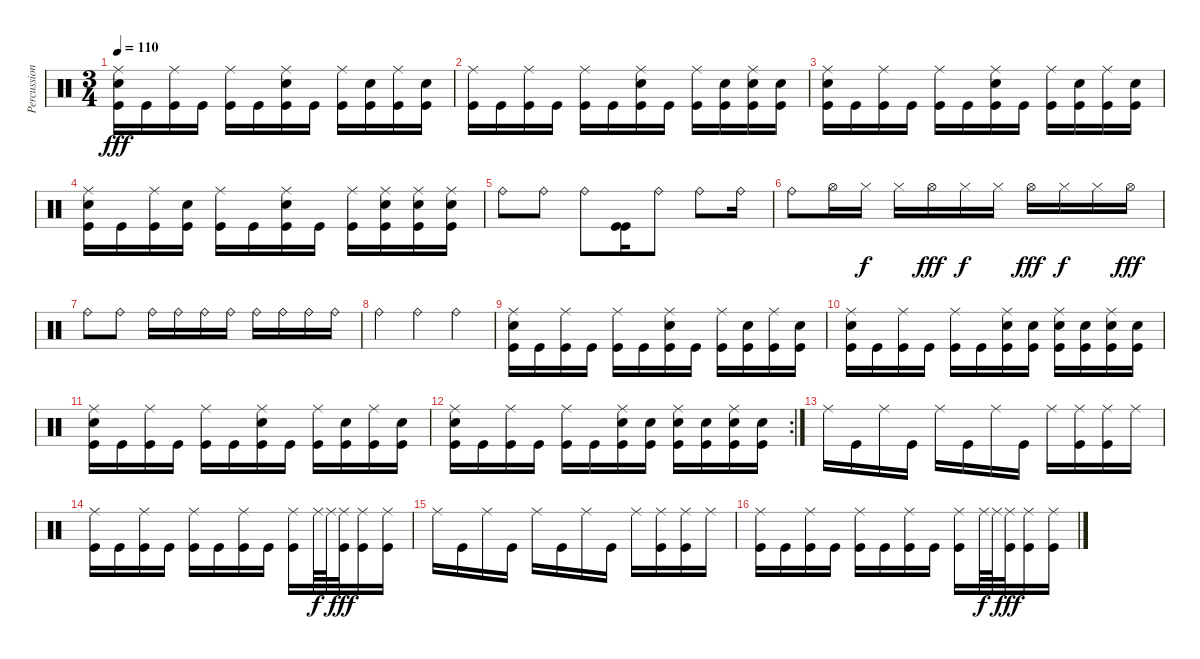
\track ("Percussions" "Percussion") {instrument percussion}
\staff {score}
\articulation defaults
\ts (3 4)
\tempo 110
\clef neutral
\ks c
("Ride (middle)" "Snare (hit) 2" "Kick (hit)").16{dy fff} "Kick (hit)".16 ("Ride (middle)" "Kick (hit)").16 "Kick (hit)".16 ("Ride (middle)" "Kick (hit)").16 "Kick (hit)".16 ("Ride (middle)" "Snare (hit) 2" "Kick (hit)").16 "Kick (hit)".16 ("Ride (middle)" "Kick (hit)").16 ("Snare (hit) 2" "Kick (hit)").16 ("Ride (middle)" "Kick (hit)").16 ("Snare (hit) 2" "Kick (hit)").16 |
("Ride (middle)" "Kick (hit)").16 "Kick (hit)".16 ("Ride (middle)" "Kick (hit)").16 "Kick (hit)".16 ("Ride (middle)" "Kick (hit)").16 "Kick (hit)".16 ("Ride (middle)" "Snare (hit) 2" "Kick (hit)").16 "Kick (hit)".16 ("Ride (middle)" "Kick (hit)").16 ("Snare (hit) 2" "Kick (hit)").16 ("Ride (middle)" "Snare (hit) 2" "Kick (hit)").16 ("Snare (hit) 2" "Kick (hit)").16 |
("Ride (middle)" "Snare (hit) 2" "Kick (hit)").16 "Kick (hit)".16 ("Ride (middle)" "Kick (hit)").16 "Kick (hit)".16 ("Ride (middle)" "Kick (hit)").16 "Kick (hit)".16 ("Ride (middle)" "Snare (hit) 2" "Kick (hit)").16 "Kick (hit)".16 ("Ride (middle)" "Kick (hit)").16 ("Snare (hit) 2" "Kick (hit)").16 ("Ride (middle)" "Kick (hit)").16 ("Snare (hit) 2" "Kick (hit)").16 |
("Ride (middle)" "Snare (hit) 2" "Kick (hit)").16 "Kick (hit)".16 ("Ride (middle)" "Kick (hit)").16 ("Snare (hit) 2" "Kick (hit)").16 ("Ride (middle)" "Kick (hit)").16 "Kick (hit)".16 ("Ride (middle)" "Snare (hit) 2" "Kick (hit)").16 "Kick (hit)".16 ("Ride (middle)" "Kick (hit)").16 ("Ride (middle)" "Snare (hit) 2" "Kick (hit)").16 ("Ride (middle)" "Snare (hit) 2" "Kick (hit)").16 ("Ride (middle)" "Snare (hit) 2" "Kick (hit)").16 |
"Ride (bell)".8 "Ride (bell)".8 "Ride (bell)".8 ("Kick (hit)" "Kick (hit)").16 "Ride (bell)".8 "Ride (bell)".8 "Ride (bell)".16 |
"Ride (bell)".8 "Hi-Hat (open)".16 "Hi-Hat (closed)".16{dy f} "Hi-Hat (closed)".16 "Hi-Hat (open)".16{dy fff} "Hi-Hat (closed)".16{dy f} "Hi-Hat (closed)".16 "Hi-Hat (open)".16{dy fff} "Hi-Hat (closed)".16{dy f} "Hi-Hat (closed)".16 "Hi-Hat (open)".16{dy fff} |
"Ride (bell)".8 "Ride (bell)".8 "Ride (bell)".16 "Ride (bell)".16 "Ride (bell)".16 "Ride (bell)".16 "Ride (bell)".16 "Ride (bell)".16 "Ride (bell)".16 "Ride (bell)".16 |
"Ride (bell)".4 "Ride (bell)".4 "Ride (bell)".4 |
("Ride (middle)" "Snare (hit) 2" "Kick (hit)").16 "Kick (hit)".16 ("Ride (middle)" "Kick (hit)").16 "Kick (hit)".16 ("Ride (middle)" "Kick (hit)").16 "Kick (hit)".16 ("Ride (middle)" "Snare (hit) 2" "Kick (hit)").16 "Kick (hit)".16 ("Ride (middle)" "Kick (hit)").16 ("Snare (hit) 2" "Kick (hit)").16 ("Ride (middle)" "Kick (hit)").16 ("Snare (hit) 2" "Kick (hit)").16 |
("Ride (middle)" "Snare (hit) 2" "Kick (hit)").16 "Kick (hit)".16 ("Ride (middle)" "Kick (hit)").16 "Kick (hit)".16 ("Ride (middle)" "Kick (hit)").16 "Kick (hit)".16 ("Ride (middle)" "Snare (hit) 2" "Kick (hit)").16 ("Snare (hit) 2" "Kick (hit)").16 ("Ride (middle)" "Snare (hit) 2" "Kick (hit)").16 ("Snare (hit) 2" "Kick (hit)").16 ("Ride (middle)" "Snare (hit) 2" "Kick (hit)").16 ("Snare (hit) 2" "Kick (hit)").16 |
("Ride (middle)" "Snare (hit) 2" "Kick (hit)").16 "Kick (hit)".16 ("Ride (middle)" "Kick (hit)").16 "Kick (hit)".16 ("Ride (middle)" "Kick (hit)").16 "Kick (hit)".16 ("Ride (middle)" "Snare (hit) 2" "Kick (hit)").16 "Kick (hit)".16 ("Ride (middle)" "Kick (hit)").16 ("Snare (hit) 2" "Kick (hit)").16 ("Ride (middle)" "Kick (hit)").16 ("Snare (hit) 2" "Kick (hit)").16 |
\rc 2
("Ride (middle)" "Snare (hit) 2" "Kick (hit)").16 "Kick (hit)".16 ("Ride (middle)" "Kick (hit)").16 "Kick (hit)".16 ("Ride (middle)" "Kick (hit)").16 "Kick (hit)".16 ("Ride (middle)" "Snare (hit) 2" "Kick (hit)").16 ("Snare (hit) 2" "Kick (hit)").16 ("Ride (middle)" "Snare (hit) 2" "Kick (hit)").16 ("Snare (hit) 2" "Kick (hit)").16 ("Ride (middle)" "Snare (hit) 2" "Kick (hit)").16 ("Snare (hit) 2" "Kick (hit)").16 |
"Ride (middle)".16 "Kick (hit)".16 "Ride (middle)".16 "Kick (hit)".16 "Ride (middle)".16 "Kick (hit)".16 "Ride (middle)".16 "Kick (hit)".16 "Ride (middle)".16 ("Ride (middle)" "Kick (hit)").16 ("Ride (middle)" "Kick (hit)").16 "Ride (middle)".16 |
("Ride (middle)" "Kick (hit)").16 "Kick (hit)".16 ("Ride (middle)" "Kick (hit)").16 "Kick (hit)".16 ("Ride (middle)" "Kick (hit)").16 "Kick (hit)".16 ("Ride (middle)" "Kick (hit)").16 "Kick (hit)".16 ("Ride (middle)" "Kick (hit)").16 "Ride (middle)".64{dy f} "Ride (middle)".64 ("Ride (middle)" "Kick (hit)").32{dy fff} ("Ride (middle)" "Kick (hit)").16 ("Ride (middle)" "Kick (hit)").16 |
"Ride (middle)".16 "Kick (hit)".16 "Ride (middle)".16 "Kick (hit)".16 "Ride (middle)".16 "Kick (hit)".16 "Ride (middle)".16 "Kick (hit)".16 "Ride (middle)".16 ("Ride (middle)" "Kick (hit)").16 ("Ride (middle)" "Kick (hit)").16 "Ride (middle)".16 |
("Ride (middle)" "Kick (hit)").16 "Kick (hit)".16 ("Ride (middle)" "Kick (hit)").16 "Kick (hit)".16 ("Ride (middle)" "Kick (hit)").16 "Kick (hit)".16 ("Ride (middle)" "Kick (hit)").16 "Kick (hit)".16 ("Ride (middle)" "Kick (hit)").16 "Ride (middle)".64{dy f} "Ride (middle)".64 ("Ride (middle)" "Kick (hit)").32{dy fff} ("Ride (middle)" "Kick (hit)").16 ("Ride (middle)" "Kick (hit)").16
